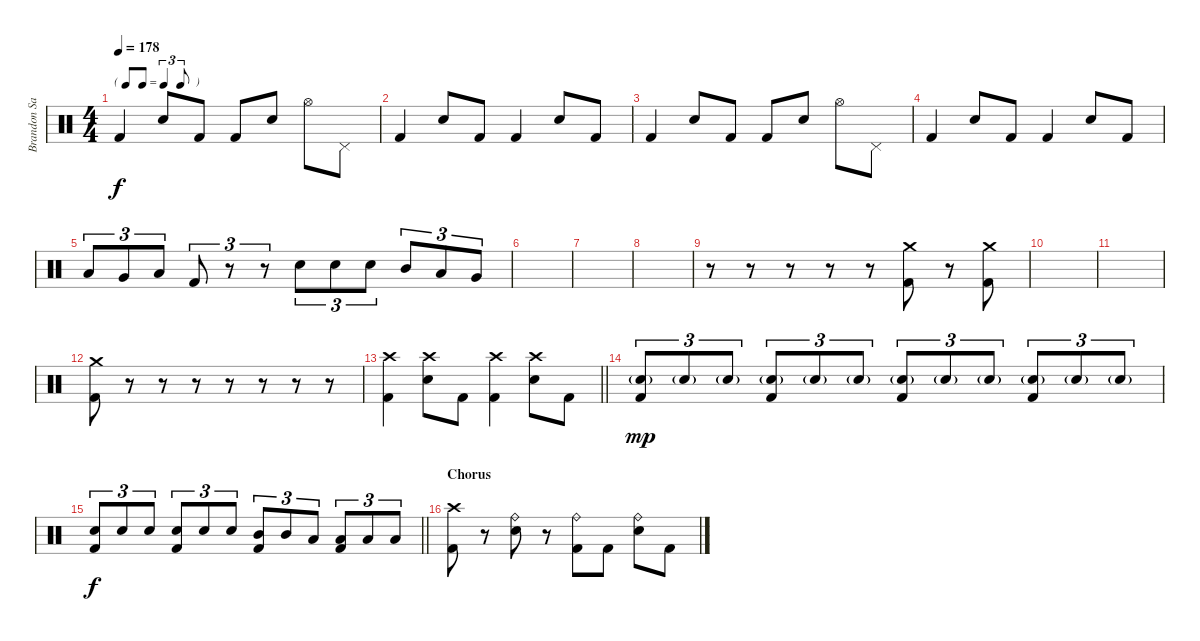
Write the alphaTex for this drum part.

\track ("Brandon Saller" "Brandon Sa") {instrument percussion}
\staff {score}
\articulation defaults
\ts (4 4)
\tf triplet8th
\tempo 178
\clef neutral
\ks c "Kick (hit) 2".4{dy f} "Electric Snare (hit)".8 "Kick (hit) 2".8 "Kick (hit) 2".8 "Electric Snare (hit)".8 "Hi-Hat (open)".8 "Pedal Hi-Hat (hit)".8
|
"Kick (hit) 2".4 "Electric Snare (hit)".8 "Kick (hit) 2".8 "Kick (hit) 2".4 "Electric Snare (hit)".8 "Kick (hit) 2".8 |
"Kick (hit) 2".4 "Electric Snare (hit)".8 "Kick (hit) 2".8 "Kick (hit) 2".8 "Electric Snare (hit)".8 "Hi-Hat (open)".8 "Pedal Hi-Hat (hit)".8 |
"Kick (hit) 2".4 "Electric Snare (hit)".8 "Kick (hit) 2".8 "Kick (hit) 2".4 "Electric Snare (hit)".8 "Kick (hit) 2".8 |
"Low Tom (hit)".8{tu (3 2)} "Very Low Tom (hit)".8{tu (3 2)} "Low Floor Tom (hit)".8{tu (3 2)} "Kick (hit) 2".8{tu (3 2)} r.8{tu (3 2)} r.8{tu (3 2)} "Electric Snare (hit)".8{tu (3 2)} "Electric Snare (hit)".8{tu (3 2)} "Electric Snare (hit)".8{tu (3 2)} "Mid Tom (hit)".8{tu (3 2)} "Low Tom (hit)".8{tu (3 2)} "Very Low Tom (hit)".8{tu (3 2)} |
|
|
|
r.8 r.8 r.8 r.8 r.8 ("Crash medium (hit)" "Kick (hit) 2").8 r.8 ("Crash medium (hit)" "Kick (hit) 2").8 |
|
|
("Crash medium (hit)" "Kick (hit) 2").8 r.8 r.8 r.8 r.8 r.8 r.8 r.8 |
\barLineRight lightlight
("Crash high (hit)" "Kick (hit) 2").4 ("Crash high (hit)" "Electric Snare (hit)").8 "Kick (hit) 2".8 ("Crash high (hit)" "Kick (hit) 2").4 ("Crash high (hit)" "Electric Snare (hit)").8 "Kick (hit) 2".8 |
("Electric Snare (hit)"{g} "Kick (hit) 2").8{tu (3 2) dy mp} "Electric Snare (hit)"{g}.8{tu (3 2)} "Electric Snare (hit)"{g}.8{tu (3 2)} ("Electric Snare (hit)"{g} "Kick (hit) 2").8{tu (3 2)} "Electric Snare (hit)"{g}.8{tu (3 2)} "Electric Snare (hit)"{g}.8{tu (3 2)} ("Electric Snare (hit)"{g} "Kick (hit) 2").8{tu (3 2)} "Electric Snare (hit)"{g}.8{tu (3 2)} "Electric Snare (hit)"{g}.8{tu (3 2)} ("Electric Snare (hit)"{g} "Kick (hit) 2").8{tu (3 2)} "Electric Snare (hit)"{g}.8{tu (3 2)} "Electric Snare (hit)"{g}.8{tu (3 2)} |
\barLineRight lightlight
("Electric Snare (hit)" "Kick (hit) 2").8{tu (3 2) dy f} "Electric Snare (hit)".8{tu (3 2)} "Electric Snare (hit)".8{tu (3 2)} ("Electric Snare (hit)" "Kick (hit) 2").8{tu (3 2)} "Electric Snare (hit)".8{tu (3 2)} "Electric Snare (hit)".8{tu (3 2)} ("Mid Tom (hit)" "Kick (hit) 2").8{tu (3 2)} "Mid Tom (hit)".8{tu (3 2)} "Low Tom (hit)".8{tu (3 2)} ("Low Tom (hit)" "Kick (hit) 2").8{tu (3 2)} "Low Floor Tom (hit)".8{tu (3 2)} "Low Floor Tom (hit)".8{tu (3 2)} |
\section ("" "Chorus")
("Crash high (hit)" "Kick (hit) 2").8 r.8 ("Ride (bell)" "Electric Snare (hit)").8 r.8 ("Ride (bell)" "Kick (hit) 2").8 "Kick (hit) 2".8 ("Ride (bell)" "Electric Snare (hit)").8 "Kick (hit) 2".8
